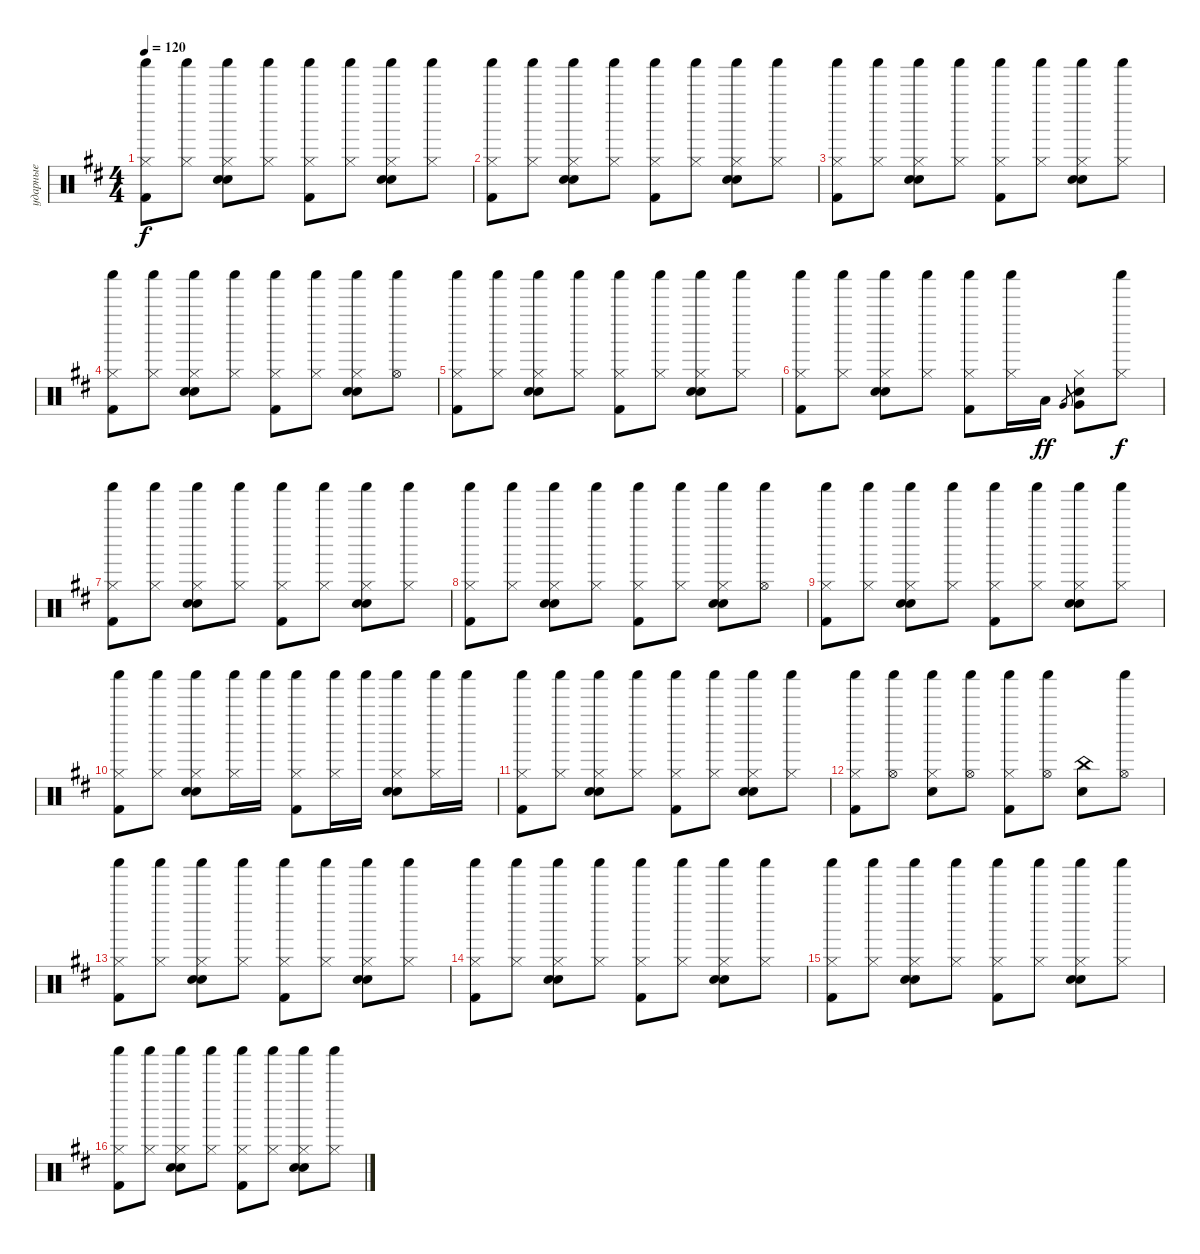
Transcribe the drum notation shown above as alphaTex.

\track ("ударные" "ударные") {instrument percussion}
\staff {score}
\articulation defaults
\ts (4 4)
\tempo 120
\clef neutral
\ks bminor
("Hi-Hat (closed)" "Shaker (hit)" "Kick (hit) 2").8{dy f} ("Hi-Hat (closed)" "Shaker (hit)").8 ("Hi-Hat (closed)" "Shaker (hit)" "Hand Clap (hit)" "Snare (hit) 2").8 ("Hi-Hat (closed)" "Shaker (hit)").8 ("Hi-Hat (closed)" "Shaker (hit)" "Kick (hit) 2").8 ("Hi-Hat (closed)" "Shaker (hit)").8 ("Hi-Hat (closed)" "Shaker (hit)" "Hand Clap (hit)" "Snare (hit) 2").8 ("Hi-Hat (closed)" "Shaker (hit)").8 |
("Hi-Hat (closed)" "Shaker (hit)" "Kick (hit) 2").8 ("Hi-Hat (closed)" "Shaker (hit)").8 ("Hi-Hat (closed)" "Shaker (hit)" "Hand Clap (hit)" "Snare (hit) 2").8 ("Hi-Hat (closed)" "Shaker (hit)").8 ("Hi-Hat (closed)" "Shaker (hit)" "Kick (hit) 2").8 ("Hi-Hat (closed)" "Shaker (hit)").8 ("Hi-Hat (closed)" "Shaker (hit)" "Hand Clap (hit)" "Snare (hit) 2").8 ("Hi-Hat (closed)" "Shaker (hit)").8 |
("Hi-Hat (closed)" "Shaker (hit)" "Kick (hit) 2").8 ("Hi-Hat (closed)" "Shaker (hit)").8 ("Hi-Hat (closed)" "Shaker (hit)" "Hand Clap (hit)" "Snare (hit) 2").8 ("Hi-Hat (closed)" "Shaker (hit)").8 ("Hi-Hat (closed)" "Shaker (hit)" "Kick (hit) 2").8 ("Hi-Hat (closed)" "Shaker (hit)").8 ("Hi-Hat (closed)" "Shaker (hit)" "Hand Clap (hit)" "Snare (hit) 2").8 ("Hi-Hat (closed)" "Shaker (hit)").8 |
("Hi-Hat (closed)" "Shaker (hit)" "Kick (hit) 2").8 ("Hi-Hat (closed)" "Shaker (hit)").8 ("Hi-Hat (closed)" "Shaker (hit)" "Hand Clap (hit)" "Snare (hit) 2").8 ("Hi-Hat (closed)" "Shaker (hit)").8 ("Hi-Hat (closed)" "Shaker (hit)" "Kick (hit) 2").8 ("Hi-Hat (closed)" "Shaker (hit)").8 ("Hi-Hat (closed)" "Shaker (hit)" "Hand Clap (hit)" "Snare (hit) 2").8 ("Shaker (hit)" "Hi-Hat (open)").8 |
("Hi-Hat (closed)" "Shaker (hit)" "Kick (hit) 2").8 ("Hi-Hat (closed)" "Shaker (hit)").8 ("Hi-Hat (closed)" "Shaker (hit)" "Hand Clap (hit)" "Snare (hit) 2").8 ("Hi-Hat (closed)" "Shaker (hit)").8 ("Hi-Hat (closed)" "Shaker (hit)" "Kick (hit) 2").8 ("Hi-Hat (closed)" "Shaker (hit)").8 ("Hi-Hat (closed)" "Shaker (hit)" "Hand Clap (hit)" "Snare (hit) 2").8 ("Hi-Hat (closed)" "Shaker (hit)").8 |
("Hi-Hat (closed)" "Shaker (hit)" "Kick (hit) 2").8 ("Hi-Hat (closed)" "Shaker (hit)").8 ("Hi-Hat (closed)" "Shaker (hit)" "Hand Clap (hit)" "Snare (hit) 2").8 ("Hi-Hat (closed)" "Shaker (hit)").8 ("Hi-Hat (closed)" "Shaker (hit)" "Kick (hit) 2").8 ("Hi-Hat (closed)" "Shaker (hit)").16 "Low Floor Tom (hit)".16{dy ff} "Very Low Tom (hit)".8{gr} ("Snare (hit) 2" "Very Low Tom (hit)" "Hi-Hat (closed)").8 ("Hi-Hat (closed)" "Shaker (hit)").8{dy f} |
("Hi-Hat (closed)" "Shaker (hit)" "Kick (hit) 2").8 ("Hi-Hat (closed)" "Shaker (hit)").8 ("Hi-Hat (closed)" "Shaker (hit)" "Hand Clap (hit)" "Snare (hit) 2").8 ("Hi-Hat (closed)" "Shaker (hit)").8 ("Hi-Hat (closed)" "Shaker (hit)" "Kick (hit) 2").8 ("Hi-Hat (closed)" "Shaker (hit)").8 ("Hi-Hat (closed)" "Shaker (hit)" "Hand Clap (hit)" "Snare (hit) 2").8 ("Hi-Hat (closed)" "Shaker (hit)").8 |
("Hi-Hat (closed)" "Shaker (hit)" "Kick (hit) 2").8 ("Hi-Hat (closed)" "Shaker (hit)").8 ("Hi-Hat (closed)" "Shaker (hit)" "Hand Clap (hit)" "Snare (hit) 2").8 ("Hi-Hat (closed)" "Shaker (hit)").8 ("Hi-Hat (closed)" "Shaker (hit)" "Kick (hit) 2").8 ("Hi-Hat (closed)" "Shaker (hit)").8 ("Hi-Hat (closed)" "Shaker (hit)" "Hand Clap (hit)" "Snare (hit) 2").8 ("Shaker (hit)" "Hi-Hat (open)").8 |
("Hi-Hat (closed)" "Shaker (hit)" "Kick (hit) 2").8 ("Hi-Hat (closed)" "Shaker (hit)").8 ("Hi-Hat (closed)" "Shaker (hit)" "Hand Clap (hit)" "Snare (hit) 2").8 ("Hi-Hat (closed)" "Shaker (hit)").8 ("Hi-Hat (closed)" "Shaker (hit)" "Kick (hit) 2").8 ("Hi-Hat (closed)" "Shaker (hit)").8 ("Hi-Hat (closed)" "Shaker (hit)" "Hand Clap (hit)" "Snare (hit) 2").8 ("Hi-Hat (closed)" "Shaker (hit)").8 |
("Hi-Hat (closed)" "Shaker (hit)" "Kick (hit) 2").8 ("Hi-Hat (closed)" "Shaker (hit)").8 ("Hi-Hat (closed)" "Shaker (hit)" "Hand Clap (hit)" "Snare (hit) 2").8 ("Hi-Hat (closed)" "Shaker (hit)").16 "Shaker (hit)".16 ("Hi-Hat (closed)" "Shaker (hit)" "Kick (hit) 2").8 ("Hi-Hat (closed)" "Shaker (hit)").16 "Shaker (hit)".16 ("Hi-Hat (closed)" "Shaker (hit)" "Hand Clap (hit)" "Snare (hit) 2").8 ("Hi-Hat (closed)" "Shaker (hit)").16 "Shaker (hit)".16 |
("Hi-Hat (closed)" "Shaker (hit)" "Kick (hit) 2").8 ("Hi-Hat (closed)" "Shaker (hit)").8 ("Hi-Hat (closed)" "Shaker (hit)" "Hand Clap (hit)" "Snare (hit) 2").8 ("Hi-Hat (closed)" "Shaker (hit)").8 ("Hi-Hat (closed)" "Shaker (hit)" "Kick (hit) 2").8 ("Hi-Hat (closed)" "Shaker (hit)").8 ("Hi-Hat (closed)" "Shaker (hit)" "Hand Clap (hit)" "Snare (hit) 2").8 ("Hi-Hat (closed)" "Shaker (hit)").8 |
("Hi-Hat (closed)" "Shaker (hit)" "Kick (hit) 2").8 ("Shaker (hit)" "Hi-Hat (open)").8 ("Hi-Hat (closed)" "Shaker (hit)" "Snare (hit) 2").8 ("Shaker (hit)" "Hi-Hat (open)").8 ("Hi-Hat (closed)" "Shaker (hit)" "Kick (hit) 2").8 ("Shaker (hit)" "Hi-Hat (open)").8 ("Snare (hit) 2" "China (hit)").8 ("Shaker (hit)" "Hi-Hat (open)").8 |
("Hi-Hat (closed)" "Shaker (hit)" "Kick (hit) 2").8 ("Hi-Hat (closed)" "Shaker (hit)").8 ("Hi-Hat (closed)" "Shaker (hit)" "Hand Clap (hit)" "Snare (hit) 2").8 ("Hi-Hat (closed)" "Shaker (hit)").8 ("Hi-Hat (closed)" "Shaker (hit)" "Kick (hit) 2").8 ("Hi-Hat (closed)" "Shaker (hit)").8 ("Hi-Hat (closed)" "Shaker (hit)" "Hand Clap (hit)" "Snare (hit) 2").8 ("Hi-Hat (closed)" "Shaker (hit)").8 |
("Hi-Hat (closed)" "Shaker (hit)" "Kick (hit) 2").8 ("Hi-Hat (closed)" "Shaker (hit)").8 ("Hi-Hat (closed)" "Shaker (hit)" "Hand Clap (hit)" "Snare (hit) 2").8 ("Hi-Hat (closed)" "Shaker (hit)").8 ("Hi-Hat (closed)" "Shaker (hit)" "Kick (hit) 2").8 ("Hi-Hat (closed)" "Shaker (hit)").8 ("Hi-Hat (closed)" "Shaker (hit)" "Hand Clap (hit)" "Snare (hit) 2").8 ("Hi-Hat (closed)" "Shaker (hit)").8 |
("Hi-Hat (closed)" "Shaker (hit)" "Kick (hit) 2").8 ("Hi-Hat (closed)" "Shaker (hit)").8 ("Hi-Hat (closed)" "Shaker (hit)" "Hand Clap (hit)" "Snare (hit) 2").8 ("Hi-Hat (closed)" "Shaker (hit)").8 ("Hi-Hat (closed)" "Shaker (hit)" "Kick (hit) 2").8 ("Hi-Hat (closed)" "Shaker (hit)").8 ("Hi-Hat (closed)" "Shaker (hit)" "Hand Clap (hit)" "Snare (hit) 2").8 ("Hi-Hat (closed)" "Shaker (hit)").8 |
("Hi-Hat (closed)" "Shaker (hit)" "Kick (hit) 2").8 ("Hi-Hat (closed)" "Shaker (hit)").8 ("Hi-Hat (closed)" "Shaker (hit)" "Hand Clap (hit)" "Snare (hit) 2").8 ("Hi-Hat (closed)" "Shaker (hit)").8 ("Hi-Hat (closed)" "Shaker (hit)" "Kick (hit) 2").8 ("Hi-Hat (closed)" "Shaker (hit)").8 ("Hi-Hat (closed)" "Shaker (hit)" "Hand Clap (hit)" "Snare (hit) 2").8 ("Hi-Hat (closed)" "Shaker (hit)").8
